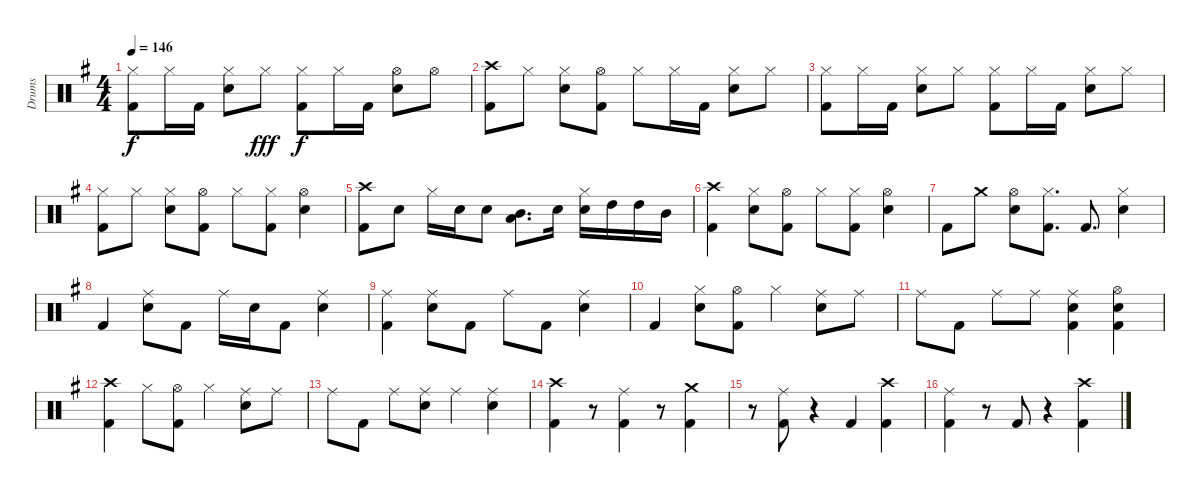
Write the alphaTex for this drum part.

\track ("Drums" "Drums") {instrument percussion}
\staff {score}
\articulation defaults
\ts (4 4)
\tempo 146
\clef neutral
\ks g
("Kick (hit) 2" "Hi-Hat (closed)").8{dy f} "Hi-Hat (closed)".16 "Kick (hit) 2".16 ("Snare (hit) 2" "Hi-Hat (closed)").8 "Hi-Hat (closed)".8{dy fff} ("Kick (hit) 2" "Hi-Hat (closed)").8{dy f} "Hi-Hat (closed)".16 "Kick (hit) 2".16 ("Snare (hit) 2" "Hi-Hat (open)").8 "Hi-Hat (open)".8 |
("Kick (hit) 2" "Crash high (hit)").8 "Hi-Hat (closed)".8 ("Snare (hit) 2" "Hi-Hat (closed)").8 ("Kick (hit) 2" "Hi-Hat (open)").8 "Hi-Hat (closed)".8 "Hi-Hat (closed)".16 "Kick (hit) 2".16 ("Snare (hit) 2" "Hi-Hat (closed)").8 "Hi-Hat (closed)".8 |
("Kick (hit) 2" "Hi-Hat (closed)").8 "Hi-Hat (closed)".16 "Kick (hit) 2".16 ("Snare (hit) 2" "Hi-Hat (closed)").8 "Hi-Hat (closed)".8 ("Kick (hit) 2" "Hi-Hat (closed)").8 "Hi-Hat (closed)".16 "Kick (hit) 2".16 ("Snare (hit) 2" "Hi-Hat (closed)").8 "Hi-Hat (closed)".8 |
("Kick (hit) 2" "Hi-Hat (closed)").8 "Hi-Hat (closed)".8 ("Snare (hit) 2" "Hi-Hat (closed)").8 ("Kick (hit) 2" "Hi-Hat (open)").8 "Hi-Hat (closed)".8 ("Kick (hit) 2" "Hi-Hat (closed)").8 ("Snare (hit) 2" "Hi-Hat (open)").4 |
("Kick (hit) 2" "Crash high (hit)").8 "Snare (hit) 2".8 "Hi-Hat (closed)".16 "Snare (hit) 2".16 "Snare (hit) 2".8 ("Mid Tom (hit)" "Low Tom (hit)").8{d} "Snare (hit) 2".16 ("Snare (hit) 2" "Hi-Hat (closed)").16 "High Tom (hit)".16 "High Tom (hit)".16 "Mid Tom (hit)".16 |
("Kick (hit) 2" "Crash high (hit)").4 ("Snare (hit) 2" "Hi-Hat (closed)").8 ("Kick (hit) 2" "Hi-Hat (open)").8 "Hi-Hat (closed)".8 ("Kick (hit) 2" "Hi-Hat (closed)").8 ("Snare (hit) 2" "Hi-Hat (open)").4 |
"Kick (hit) 2".8 "Crash medium (hit)".8 ("Snare (hit) 2" "Hi-Hat (open)").8 ("Kick (hit) 2" "Hi-Hat (closed)").8{d} "Kick (hit) 2".8{d} ("Snare (hit) 2" "Hi-Hat (closed)").4 |
"Kick (hit) 2".4 ("Snare (hit) 2" "Ride (middle)").8 "Kick (hit) 2".8 "Ride (middle)".16 "Snare (hit) 2".16 "Kick (hit) 2".8 ("Snare (hit) 2" "Ride (middle)").4 |
("Kick (hit) 2" "Ride (middle)").4 ("Snare (hit) 2" "Ride (middle)").8 "Kick (hit) 2".8 "Ride (middle)".8 "Kick (hit) 2".8 ("Snare (hit) 2" "Ride (middle)").4 |
"Kick (hit) 2".4 ("Snare (hit) 2" "Hi-Hat (closed)").8 ("Kick (hit) 2" "Hi-Hat (open)").8 "Hi-Hat (closed)".4 ("Snare (hit) 2" "Ride (middle)").8 "Ride (middle)".8 |
"Ride (middle)".8 "Kick (hit) 2".8 "Ride (middle)".8 "Ride (middle)".8 ("Kick (hit) 2" "Snare (hit) 2" "Ride (middle)").4 ("Kick (hit) 2" "Snare (hit) 2" "Hi-Hat (open)").4 |
("Kick (hit) 2" "Crash high (hit)").4 "Hi-Hat (closed)".8 ("Kick (hit) 2" "Hi-Hat (open)").8 "Hi-Hat (closed)".4 ("Snare (hit) 2" "Ride (middle)").8 "Ride (middle)".8 |
"Ride (middle)".8 "Kick (hit) 2".8 "Ride (middle)".8 ("Snare (hit) 2" "Ride (middle)").8 "Ride (middle)".4 ("Snare (hit) 2" "Ride (middle)").4 |
("Kick (hit) 2" "Crash high (hit)").4 r.8 ("Kick (hit) 2" "Ride (middle)").4 r.8 ("Kick (hit) 2" "Crash medium (hit)").4 |
r.8 ("Kick (hit) 2" "Ride (middle)").8 r.4 "Kick (hit) 2".4 ("Kick (hit) 2" "Crash high (hit)").4 |
("Kick (hit) 2" "Ride (middle)").4 r.8 "Kick (hit) 2".8 r.4 ("Kick (hit) 2" "Crash high (hit)").4
